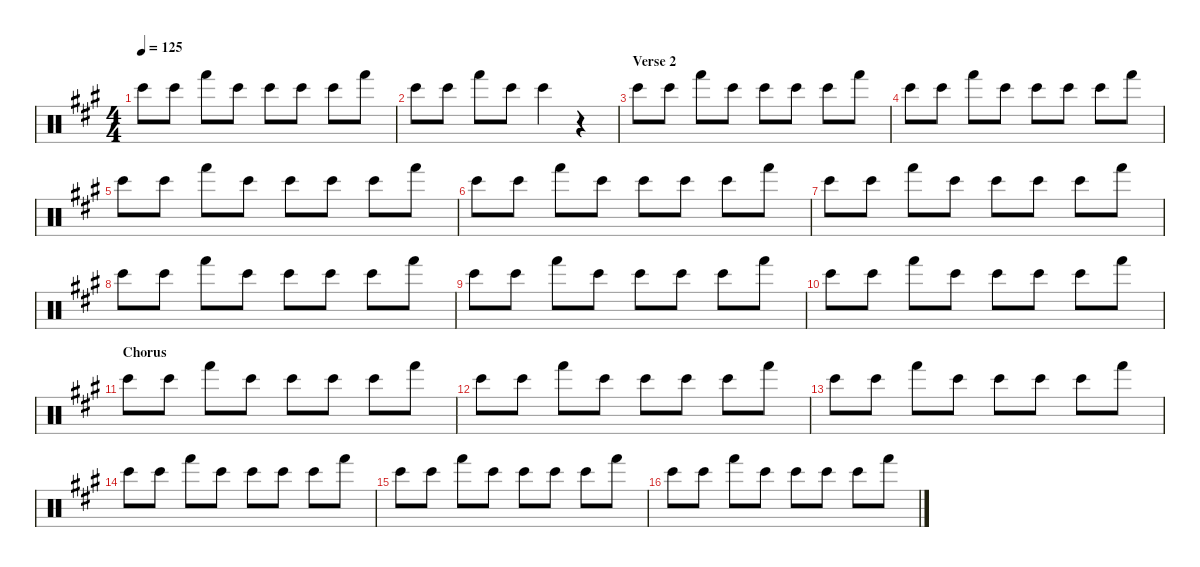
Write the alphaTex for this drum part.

\defaultSystemsLayout 4
\hideDynamics
\bracketExtendMode nobrackets
\singleTrackTrackNamePolicy hidden
\multiTrackTrackNamePolicy hidden
\otherSystemsTrackNameOrientation horizontal
\track ("Percussion" "drm.") {instrument percussion}
\staff {score}
\articulation defaults
\ts (4 4)
\tempo 125
\clef neutral
\ks a "Bongo High (hit)"{acc forcenatural}.8{dy f beam Down} "Bongo High (hit)"{acc forcenatural}.8{beam Down} "Hand (hit)"{acc forcenatural}.8{beam Down} "Bongo High (hit)"{acc forcenatural}.8{beam Down} "Bongo High (hit)"{acc forcenatural}.8{beam Down} "Bongo High (hit)"{acc forcenatural}.8{beam Down} "Bongo High (hit)"{acc forcenatural}.8{beam Down} "Hand (hit)"{acc forcenatural}.8{beam Down}
|
"Bongo High (hit)"{acc forcenatural}.8{beam Down} "Bongo High (hit)"{acc forcenatural}.8{beam Down} "Hand (hit)"{acc forcenatural}.8{beam Down} "Bongo High (hit)"{acc forcenatural}.8{beam Down} "Bongo High (hit)"{acc forcenatural}.4{beam Down} r.4{beam Down} |
\section ("" "Verse 2")
"Bongo High (hit)"{acc forcenatural}.8{beam Down} "Bongo High (hit)"{acc forcenatural}.8{beam Down} "Hand (hit)"{acc forcenatural}.8{beam Down} "Bongo High (hit)"{acc forcenatural}.8{beam Down} "Bongo High (hit)"{acc forcenatural}.8{beam Down} "Bongo High (hit)"{acc forcenatural}.8{beam Down} "Bongo High (hit)"{acc forcenatural}.8{beam Down} "Hand (hit)"{acc forcenatural}.8{beam Down} |
"Bongo High (hit)"{acc forcenatural}.8{beam Down} "Bongo High (hit)"{acc forcenatural}.8{beam Down} "Hand (hit)"{acc forcenatural}.8{beam Down} "Bongo High (hit)"{acc forcenatural}.8{beam Down} "Bongo High (hit)"{acc forcenatural}.8{beam Down} "Bongo High (hit)"{acc forcenatural}.8{beam Down} "Bongo High (hit)"{acc forcenatural}.8{beam Down} "Hand (hit)"{acc forcenatural}.8{beam Down} |
"Bongo High (hit)"{acc forcenatural}.8{beam Down} "Bongo High (hit)"{acc forcenatural}.8{beam Down} "Hand (hit)"{acc forcenatural}.8{beam Down} "Bongo High (hit)"{acc forcenatural}.8{beam Down} "Bongo High (hit)"{acc forcenatural}.8{beam Down} "Bongo High (hit)"{acc forcenatural}.8{beam Down} "Bongo High (hit)"{acc forcenatural}.8{beam Down} "Hand (hit)"{acc forcenatural}.8{beam Down} |
"Bongo High (hit)"{acc forcenatural}.8{beam Down} "Bongo High (hit)"{acc forcenatural}.8{beam Down} "Hand (hit)"{acc forcenatural}.8{beam Down} "Bongo High (hit)"{acc forcenatural}.8{beam Down} "Bongo High (hit)"{acc forcenatural}.8{beam Down} "Bongo High (hit)"{acc forcenatural}.8{beam Down} "Bongo High (hit)"{acc forcenatural}.8{beam Down} "Hand (hit)"{acc forcenatural}.8{beam Down} |
"Bongo High (hit)"{acc forcenatural}.8{beam Down} "Bongo High (hit)"{acc forcenatural}.8{beam Down} "Hand (hit)"{acc forcenatural}.8{beam Down} "Bongo High (hit)"{acc forcenatural}.8{beam Down} "Bongo High (hit)"{acc forcenatural}.8{beam Down} "Bongo High (hit)"{acc forcenatural}.8{beam Down} "Bongo High (hit)"{acc forcenatural}.8{beam Down} "Hand (hit)"{acc forcenatural}.8{beam Down} |
"Bongo High (hit)"{acc forcenatural}.8{beam Down} "Bongo High (hit)"{acc forcenatural}.8{beam Down} "Hand (hit)"{acc forcenatural}.8{beam Down} "Bongo High (hit)"{acc forcenatural}.8{beam Down} "Bongo High (hit)"{acc forcenatural}.8{beam Down} "Bongo High (hit)"{acc forcenatural}.8{beam Down} "Bongo High (hit)"{acc forcenatural}.8{beam Down} "Hand (hit)"{acc forcenatural}.8{beam Down} |
"Bongo High (hit)"{acc forcenatural}.8{beam Down} "Bongo High (hit)"{acc forcenatural}.8{beam Down} "Hand (hit)"{acc forcenatural}.8{beam Down} "Bongo High (hit)"{acc forcenatural}.8{beam Down} "Bongo High (hit)"{acc forcenatural}.8{beam Down} "Bongo High (hit)"{acc forcenatural}.8{beam Down} "Bongo High (hit)"{acc forcenatural}.8{beam Down} "Hand (hit)"{acc forcenatural}.8{beam Down} |
"Bongo High (hit)"{acc forcenatural}.8{beam Down} "Bongo High (hit)"{acc forcenatural}.8{beam Down} "Hand (hit)"{acc forcenatural}.8{beam Down} "Bongo High (hit)"{acc forcenatural}.8{beam Down} "Bongo High (hit)"{acc forcenatural}.8{beam Down} "Bongo High (hit)"{acc forcenatural}.8{beam Down} "Bongo High (hit)"{acc forcenatural}.8{beam Down} "Hand (hit)"{acc forcenatural}.8{beam Down} |
\section ("" "Chorus")
"Bongo High (hit)"{acc forcenatural}.8{beam Down} "Bongo High (hit)"{acc forcenatural}.8{beam Down} "Hand (hit)"{acc forcenatural}.8{beam Down} "Bongo High (hit)"{acc forcenatural}.8{beam Down} "Bongo High (hit)"{acc forcenatural}.8{beam Down} "Bongo High (hit)"{acc forcenatural}.8{beam Down} "Bongo High (hit)"{acc forcenatural}.8{beam Down} "Hand (hit)"{acc forcenatural}.8{beam Down} |
"Bongo High (hit)"{acc forcenatural}.8{beam Down} "Bongo High (hit)"{acc forcenatural}.8{beam Down} "Hand (hit)"{acc forcenatural}.8{beam Down} "Bongo High (hit)"{acc forcenatural}.8{beam Down} "Bongo High (hit)"{acc forcenatural}.8{beam Down} "Bongo High (hit)"{acc forcenatural}.8{beam Down} "Bongo High (hit)"{acc forcenatural}.8{beam Down} "Hand (hit)"{acc forcenatural}.8{beam Down} |
"Bongo High (hit)"{acc forcenatural}.8{beam Down} "Bongo High (hit)"{acc forcenatural}.8{beam Down} "Hand (hit)"{acc forcenatural}.8{beam Down} "Bongo High (hit)"{acc forcenatural}.8{beam Down} "Bongo High (hit)"{acc forcenatural}.8{beam Down} "Bongo High (hit)"{acc forcenatural}.8{beam Down} "Bongo High (hit)"{acc forcenatural}.8{beam Down} "Hand (hit)"{acc forcenatural}.8{beam Down} |
"Bongo High (hit)"{acc forcenatural}.8{beam Down} "Bongo High (hit)"{acc forcenatural}.8{beam Down} "Hand (hit)"{acc forcenatural}.8{beam Down} "Bongo High (hit)"{acc forcenatural}.8{beam Down} "Bongo High (hit)"{acc forcenatural}.8{beam Down} "Bongo High (hit)"{acc forcenatural}.8{beam Down} "Bongo High (hit)"{acc forcenatural}.8{beam Down} "Hand (hit)"{acc forcenatural}.8{beam Down} |
"Bongo High (hit)"{acc forcenatural}.8{beam Down} "Bongo High (hit)"{acc forcenatural}.8{beam Down} "Hand (hit)"{acc forcenatural}.8{beam Down} "Bongo High (hit)"{acc forcenatural}.8{beam Down} "Bongo High (hit)"{acc forcenatural}.8{beam Down} "Bongo High (hit)"{acc forcenatural}.8{beam Down} "Bongo High (hit)"{acc forcenatural}.8{beam Down} "Hand (hit)"{acc forcenatural}.8{beam Down} |
"Bongo High (hit)"{acc forcenatural}.8{beam Down} "Bongo High (hit)"{acc forcenatural}.8{beam Down} "Hand (hit)"{acc forcenatural}.8{beam Down} "Bongo High (hit)"{acc forcenatural}.8{beam Down} "Bongo High (hit)"{acc forcenatural}.8{beam Down} "Bongo High (hit)"{acc forcenatural}.8{beam Down} "Bongo High (hit)"{acc forcenatural}.8{beam Down} "Hand (hit)"{acc forcenatural}.8{beam Down}
